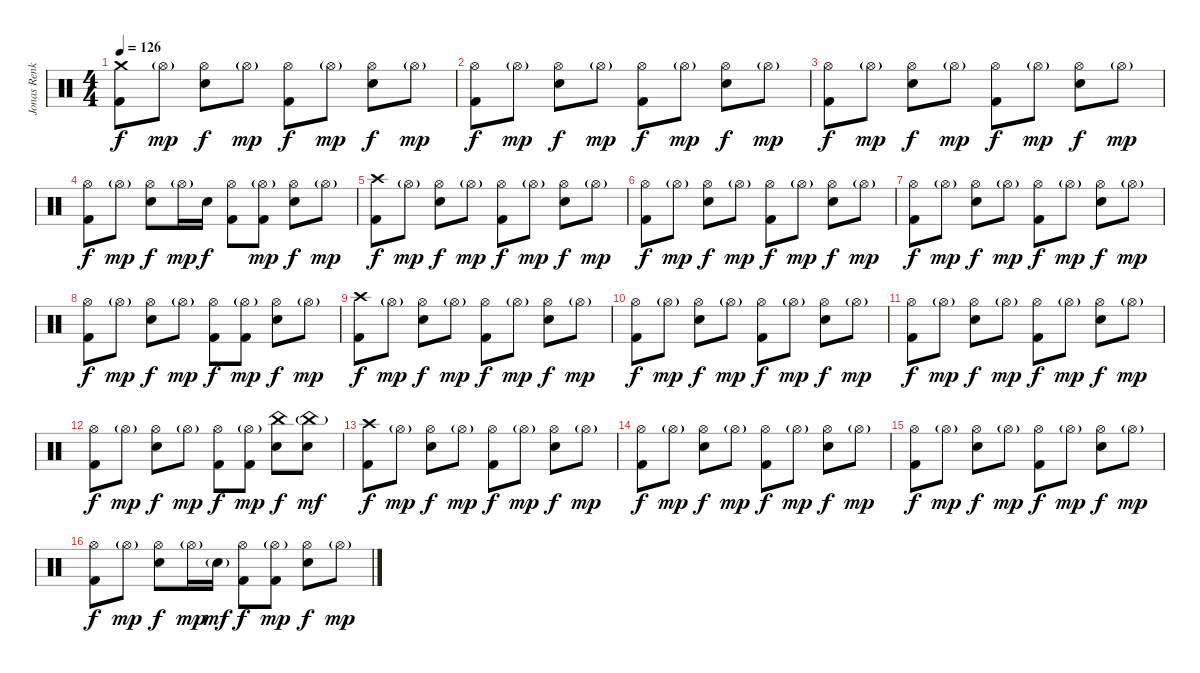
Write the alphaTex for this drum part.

\track ("Jonas Renkse" "Jonas Renk") {instrument percussion}
\staff {score}
\articulation defaults
\ts (4 4)
\tempo 126
\clef neutral
\ks c
("Crash medium (hit)" "Kick (hit) 2").8{dy f} "Hi-Hat (open)"{g}.8{dy mp} ("Hi-Hat (open)" "Electric Snare (hit)").8{dy f} "Hi-Hat (open)"{g}.8{dy mp} ("Hi-Hat (open)" "Kick (hit) 2").8{dy f} "Hi-Hat (open)"{g}.8{dy mp} ("Hi-Hat (open)" "Electric Snare (hit)").8{dy f} "Hi-Hat (open)"{g}.8{dy mp} |
("Hi-Hat (open)" "Kick (hit) 2").8{dy f} "Hi-Hat (open)"{g}.8{dy mp} ("Hi-Hat (open)" "Electric Snare (hit)").8{dy f} "Hi-Hat (open)"{g}.8{dy mp} ("Hi-Hat (open)" "Kick (hit) 2").8{dy f} "Hi-Hat (open)"{g}.8{dy mp} ("Hi-Hat (open)" "Electric Snare (hit)").8{dy f} "Hi-Hat (open)"{g}.8{dy mp} |
("Hi-Hat (open)" "Kick (hit) 2").8{dy f} "Hi-Hat (open)"{g}.8{dy mp} ("Hi-Hat (open)" "Electric Snare (hit)").8{dy f} "Hi-Hat (open)"{g}.8{dy mp} ("Hi-Hat (open)" "Kick (hit) 2").8{dy f} "Hi-Hat (open)"{g}.8{dy mp} ("Hi-Hat (open)" "Electric Snare (hit)").8{dy f} "Hi-Hat (open)"{g}.8{dy mp} |
("Hi-Hat (open)" "Kick (hit) 2").8{dy f} "Hi-Hat (open)"{g}.8{dy mp} ("Hi-Hat (open)" "Electric Snare (hit)").8{dy f} "Hi-Hat (open)"{g}.16{dy mp} "Electric Snare (hit)".16{dy f} ("Hi-Hat (open)" "Kick (hit) 2").8 ("Hi-Hat (open)"{g} "Kick (hit) 2").8{dy mp} ("Hi-Hat (open)" "Electric Snare (hit)").8{dy f} "Hi-Hat (open)"{g}.8{dy mp} |
("Crash high (hit)" "Kick (hit) 2").8{dy f} "Hi-Hat (open)"{g}.8{dy mp} ("Hi-Hat (open)" "Electric Snare (hit)").8{dy f} "Hi-Hat (open)"{g}.8{dy mp} ("Hi-Hat (open)" "Kick (hit) 2").8{dy f} "Hi-Hat (open)"{g}.8{dy mp} ("Hi-Hat (open)" "Electric Snare (hit)").8{dy f} "Hi-Hat (open)"{g}.8{dy mp} |
("Hi-Hat (open)" "Kick (hit) 2").8{dy f} "Hi-Hat (open)"{g}.8{dy mp} ("Hi-Hat (open)" "Electric Snare (hit)").8{dy f} "Hi-Hat (open)"{g}.8{dy mp} ("Hi-Hat (open)" "Kick (hit) 2").8{dy f} "Hi-Hat (open)"{g}.8{dy mp} ("Hi-Hat (open)" "Electric Snare (hit)").8{dy f} "Hi-Hat (open)"{g}.8{dy mp} |
("Hi-Hat (open)" "Kick (hit) 2").8{dy f} "Hi-Hat (open)"{g}.8{dy mp} ("Hi-Hat (open)" "Electric Snare (hit)").8{dy f} "Hi-Hat (open)"{g}.8{dy mp} ("Hi-Hat (open)" "Kick (hit) 2").8{dy f} "Hi-Hat (open)"{g}.8{dy mp} ("Hi-Hat (open)" "Electric Snare (hit)").8{dy f} "Hi-Hat (open)"{g}.8{dy mp} |
("Hi-Hat (open)" "Kick (hit) 2").8{dy f} "Hi-Hat (open)"{g}.8{dy mp} ("Hi-Hat (open)" "Electric Snare (hit)").8{dy f} "Hi-Hat (open)"{g}.8{dy mp} ("Hi-Hat (open)" "Kick (hit) 2").8{dy f} ("Hi-Hat (open)"{g} "Kick (hit) 2").8{dy mp} ("Hi-Hat (open)" "Electric Snare (hit)").8{dy f} "Hi-Hat (open)"{g}.8{dy mp} |
("Crash high (hit)" "Kick (hit) 2").8{dy f} "Hi-Hat (open)"{g}.8{dy mp} ("Hi-Hat (open)" "Electric Snare (hit)").8{dy f} "Hi-Hat (open)"{g}.8{dy mp} ("Hi-Hat (open)" "Kick (hit) 2").8{dy f} "Hi-Hat (open)"{g}.8{dy mp} ("Hi-Hat (open)" "Electric Snare (hit)").8{dy f} "Hi-Hat (open)"{g}.8{dy mp} |
("Hi-Hat (open)" "Kick (hit) 2").8{dy f} "Hi-Hat (open)"{g}.8{dy mp} ("Hi-Hat (open)" "Electric Snare (hit)").8{dy f} "Hi-Hat (open)"{g}.8{dy mp} ("Hi-Hat (open)" "Kick (hit) 2").8{dy f} "Hi-Hat (open)"{g}.8{dy mp} ("Hi-Hat (open)" "Electric Snare (hit)").8{dy f} "Hi-Hat (open)"{g}.8{dy mp} |
("Hi-Hat (open)" "Kick (hit) 2").8{dy f} "Hi-Hat (open)"{g}.8{dy mp} ("Hi-Hat (open)" "Electric Snare (hit)").8{dy f} "Hi-Hat (open)"{g}.8{dy mp} ("Hi-Hat (open)" "Kick (hit) 2").8{dy f} "Hi-Hat (open)"{g}.8{dy mp} ("Hi-Hat (open)" "Electric Snare (hit)").8{dy f} "Hi-Hat (open)"{g}.8{dy mp} |
("Hi-Hat (open)" "Kick (hit) 2").8{dy f} "Hi-Hat (open)"{g}.8{dy mp} ("Hi-Hat (open)" "Electric Snare (hit)").8{dy f} "Hi-Hat (open)"{g}.8{dy mp} ("Hi-Hat (open)" "Kick (hit) 2").8{dy f} ("Hi-Hat (open)"{g} "Kick (hit) 2").8{dy mp} ("China (hit)" "Electric Snare (hit)").8{dy f} ("China (hit)"{g} "Electric Snare (hit)").8{dy mf} |
("Crash high (hit)" "Kick (hit) 2").8{dy f} "Hi-Hat (open)"{g}.8{dy mp} ("Hi-Hat (open)" "Electric Snare (hit)").8{dy f} "Hi-Hat (open)"{g}.8{dy mp} ("Hi-Hat (open)" "Kick (hit) 2").8{dy f} "Hi-Hat (open)"{g}.8{dy mp} ("Hi-Hat (open)" "Electric Snare (hit)").8{dy f} "Hi-Hat (open)"{g}.8{dy mp} |
("Hi-Hat (open)" "Kick (hit) 2").8{dy f} "Hi-Hat (open)"{g}.8{dy mp} ("Hi-Hat (open)" "Electric Snare (hit)").8{dy f} "Hi-Hat (open)"{g}.8{dy mp} ("Hi-Hat (open)" "Kick (hit) 2").8{dy f} "Hi-Hat (open)"{g}.8{dy mp} ("Hi-Hat (open)" "Electric Snare (hit)").8{dy f} "Hi-Hat (open)"{g}.8{dy mp} |
("Hi-Hat (open)" "Kick (hit) 2").8{dy f} "Hi-Hat (open)"{g}.8{dy mp} ("Hi-Hat (open)" "Electric Snare (hit)").8{dy f} "Hi-Hat (open)"{g}.8{dy mp} ("Hi-Hat (open)" "Kick (hit) 2").8{dy f} "Hi-Hat (open)"{g}.8{dy mp} ("Hi-Hat (open)" "Electric Snare (hit)").8{dy f} "Hi-Hat (open)"{g}.8{dy mp} |
("Hi-Hat (open)" "Kick (hit) 2").8{dy f} "Hi-Hat (open)"{g}.8{dy mp} ("Hi-Hat (open)" "Electric Snare (hit)").8{dy f} "Hi-Hat (open)"{g}.16{dy mp} "Electric Snare (hit)"{g}.16{dy mf} ("Hi-Hat (open)" "Kick (hit) 2").8{dy f} ("Hi-Hat (open)"{g} "Kick (hit) 2").8{dy mp} ("Hi-Hat (open)" "Electric Snare (hit)").8{dy f} "Hi-Hat (open)"{g}.8{dy mp}
